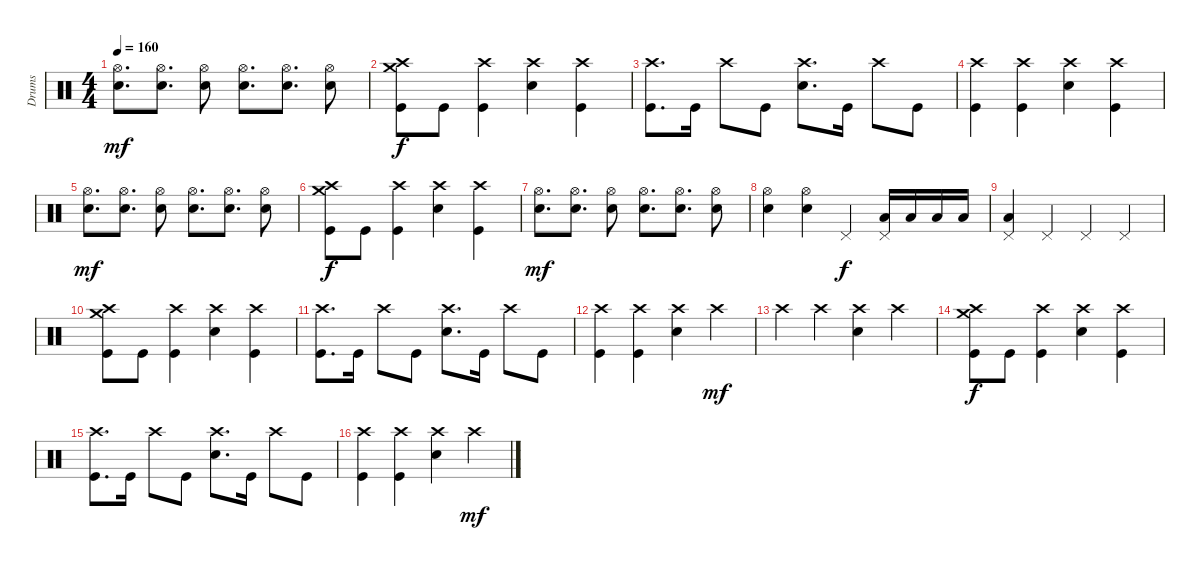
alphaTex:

\track ("Drums" "Drums") {instrument percussion}
\staff {score}
\articulation defaults
\ts (4 4)
\tempo 160
\clef neutral
\ks c
("Electric Snare (hit)" "Hi-Hat (open)").8{d dy mf} ("Electric Snare (hit)" "Hi-Hat (open)").8{d} ("Electric Snare (hit)" "Hi-Hat (open)").8 ("Electric Snare (hit)" "Hi-Hat (open)").8{d} ("Electric Snare (hit)" "Hi-Hat (open)").8{d} ("Electric Snare (hit)" "Hi-Hat (open)").8 |
("Kick (hit)" "Crash high (hit)" "Crash medium (hit)").8{dy f volume 9} "Kick (hit)".8 ("Kick (hit)" "Crash high (hit)").4 ("Electric Snare (hit)" "Crash high (hit)").4 ("Kick (hit)" "Crash high (hit)").4 |
("Kick (hit)" "Crash high (hit)").8{d} "Kick (hit)".16 "Crash high (hit)".8 "Kick (hit)".8 ("Electric Snare (hit)" "Crash high (hit)").8{d} "Kick (hit)".16 "Crash high (hit)".8 "Kick (hit)".8 |
("Kick (hit)" "Crash high (hit)").4 ("Kick (hit)" "Crash high (hit)").4 ("Electric Snare (hit)" "Crash high (hit)").4 ("Kick (hit)" "Crash high (hit)").4 |
("Electric Snare (hit)" "Hi-Hat (open)").8{d dy mf} ("Electric Snare (hit)" "Hi-Hat (open)").8{d} ("Electric Snare (hit)" "Hi-Hat (open)").8 ("Electric Snare (hit)" "Hi-Hat (open)").8{d} ("Electric Snare (hit)" "Hi-Hat (open)").8{d} ("Electric Snare (hit)" "Hi-Hat (open)").8 |
("Kick (hit)" "Crash high (hit)" "Crash medium (hit)").8{dy f} "Kick (hit)".8 ("Kick (hit)" "Crash high (hit)").4 ("Electric Snare (hit)" "Crash high (hit)").4 ("Kick (hit)" "Crash high (hit)").4 |
("Electric Snare (hit)" "Hi-Hat (open)").8{d dy mf} ("Electric Snare (hit)" "Hi-Hat (open)").8{d} ("Electric Snare (hit)" "Hi-Hat (open)").8 ("Electric Snare (hit)" "Hi-Hat (open)").8{d} ("Electric Snare (hit)" "Hi-Hat (open)").8{d} ("Electric Snare (hit)" "Hi-Hat (open)").8 |
("Electric Snare (hit)" "Hi-Hat (open)").4 ("Electric Snare (hit)" "Hi-Hat (open)").4 "Pedal Hi-Hat (hit)".4{dy f} ("Low Floor Tom (hit)" "Pedal Hi-Hat (hit)").16 "Low Floor Tom (hit)".16 "Low Floor Tom (hit)".16 "Low Floor Tom (hit)".16 |
("Low Floor Tom (hit)" "Pedal Hi-Hat (hit)").4 "Pedal Hi-Hat (hit)".4 "Pedal Hi-Hat (hit)".4 "Pedal Hi-Hat (hit)".4 |
("Kick (hit)" "Crash high (hit)" "Crash medium (hit)").8 "Kick (hit)".8 ("Kick (hit)" "Crash high (hit)").4 ("Electric Snare (hit)" "Crash high (hit)").4 ("Kick (hit)" "Crash high (hit)").4 |
("Kick (hit)" "Crash high (hit)").8{d} "Kick (hit)".16 "Crash high (hit)".8 "Kick (hit)".8 ("Electric Snare (hit)" "Crash high (hit)").8{d} "Kick (hit)".16 "Crash high (hit)".8 "Kick (hit)".8 |
("Kick (hit)" "Crash high (hit)").4 ("Kick (hit)" "Crash high (hit)").4 ("Electric Snare (hit)" "Crash high (hit)").4 "Crash high (hit)".4{dy mf} |
"Crash high (hit)".4 "Crash high (hit)".4 ("Electric Snare (hit)" "Crash high (hit)").4 "Crash high (hit)".4 |
("Kick (hit)" "Crash high (hit)" "Crash medium (hit)").8{dy f} "Kick (hit)".8 ("Kick (hit)" "Crash high (hit)").4 ("Electric Snare (hit)" "Crash high (hit)").4 ("Kick (hit)" "Crash high (hit)").4 |
("Kick (hit)" "Crash high (hit)").8{d} "Kick (hit)".16 "Crash high (hit)".8 "Kick (hit)".8 ("Electric Snare (hit)" "Crash high (hit)").8{d} "Kick (hit)".16 "Crash high (hit)".8 "Kick (hit)".8 |
("Kick (hit)" "Crash high (hit)").4 ("Kick (hit)" "Crash high (hit)").4 ("Electric Snare (hit)" "Crash high (hit)").4 "Crash high (hit)".4{dy mf}
